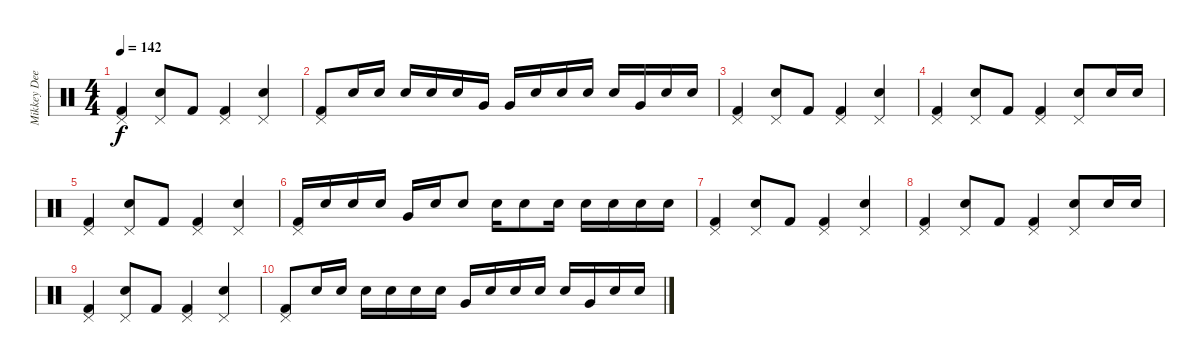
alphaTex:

\track ("Mikkey Dee" "Mikkey Dee") {instrument percussion}
\staff {score}
\articulation defaults
\ts (4 4)
\tempo 142
\clef neutral
\ks c
("Kick (hit) 2" "Pedal Hi-Hat (hit)").4{dy f} ("Pedal Hi-Hat (hit)" "Snare (hit) 2").8 "Kick (hit) 2".8 ("Kick (hit) 2" "Pedal Hi-Hat (hit)").4 ("Pedal Hi-Hat (hit)" "Snare (hit) 2").4 |
("Kick (hit) 2" "Pedal Hi-Hat (hit)").8 "Snare (hit) 2".16 "Snare (hit) 2".16 "Snare (hit) 2".16 "Snare (hit) 2".16 "Snare (hit) 2".16 "Very Low Tom (hit)".16 "Very Low Tom (hit)".16 "Snare (hit) 2".16 "Snare (hit) 2".16 "Snare (hit) 2".16 "Snare (hit) 2".16 "Very Low Tom (hit)".16 "Snare (hit) 2".16 "Snare (hit) 2".16 |
("Kick (hit) 2" "Pedal Hi-Hat (hit)").4 ("Pedal Hi-Hat (hit)" "Snare (hit) 2").8 "Kick (hit) 2".8 ("Kick (hit) 2" "Pedal Hi-Hat (hit)").4 ("Pedal Hi-Hat (hit)" "Snare (hit) 2").4 |
("Kick (hit) 2" "Pedal Hi-Hat (hit)").4 ("Pedal Hi-Hat (hit)" "Snare (hit) 2").8 "Kick (hit) 2".8 ("Kick (hit) 2" "Pedal Hi-Hat (hit)").4 ("Pedal Hi-Hat (hit)" "Snare (hit) 2").8 "Snare (hit) 2".16 "Snare (hit) 2".16 |
("Kick (hit) 2" "Pedal Hi-Hat (hit)").4 ("Pedal Hi-Hat (hit)" "Snare (hit) 2").8 "Kick (hit) 2".8 ("Kick (hit) 2" "Pedal Hi-Hat (hit)").4 ("Pedal Hi-Hat (hit)" "Snare (hit) 2").4 |
("Kick (hit) 2" "Pedal Hi-Hat (hit)").16 "Snare (hit) 2".16 "Snare (hit) 2".16 "Snare (hit) 2".16 "Very Low Tom (hit)".16 "Snare (hit) 2".16 "Snare (hit) 2".8 "Snare (hit) 2".16 "Snare (hit) 2".8 "Snare (hit) 2".16 "Snare (hit) 2".16 "Snare (hit) 2".16 "Snare (hit) 2".16 "Snare (hit) 2".16 |
("Kick (hit) 2" "Pedal Hi-Hat (hit)").4 ("Pedal Hi-Hat (hit)" "Snare (hit) 2").8 "Kick (hit) 2".8 ("Kick (hit) 2" "Pedal Hi-Hat (hit)").4 ("Pedal Hi-Hat (hit)" "Snare (hit) 2").4 |
("Kick (hit) 2" "Pedal Hi-Hat (hit)").4 ("Pedal Hi-Hat (hit)" "Snare (hit) 2").8 "Kick (hit) 2".8 ("Kick (hit) 2" "Pedal Hi-Hat (hit)").4 ("Pedal Hi-Hat (hit)" "Snare (hit) 2").8 "Snare (hit) 2".16 "Snare (hit) 2".16 |
("Kick (hit) 2" "Pedal Hi-Hat (hit)").4 ("Pedal Hi-Hat (hit)" "Snare (hit) 2").8 "Kick (hit) 2".8 ("Kick (hit) 2" "Pedal Hi-Hat (hit)").4 ("Pedal Hi-Hat (hit)" "Snare (hit) 2").4 |
("Kick (hit) 2" "Pedal Hi-Hat (hit)").8 "Snare (hit) 2".16 "Snare (hit) 2".16 "Snare (hit) 2".16 "Snare (hit) 2".16 "Snare (hit) 2".16 "Snare (hit) 2".16 "Very Low Tom (hit)".16 "Snare (hit) 2".16 "Snare (hit) 2".16 "Snare (hit) 2".16 "Snare (hit) 2".16 "Very Low Tom (hit)".16 "Snare (hit) 2".16 "Snare (hit) 2".16
